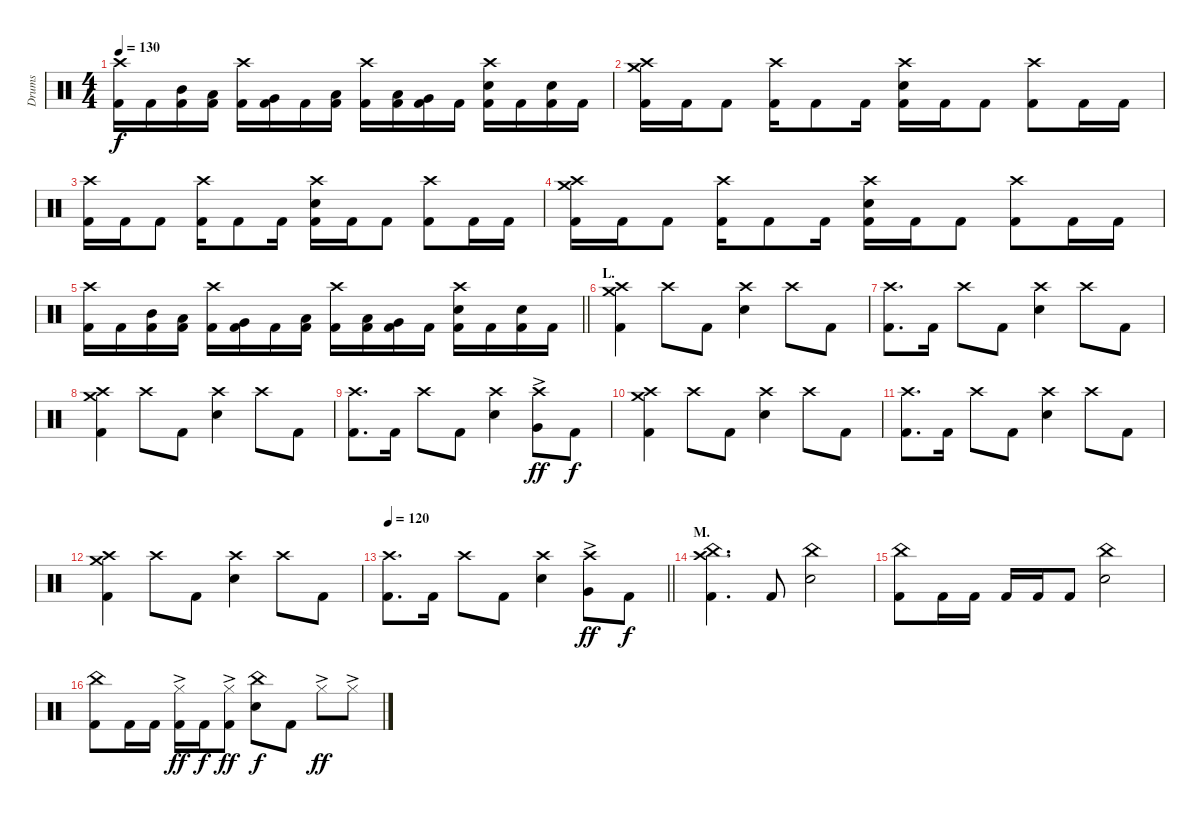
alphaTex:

\track ("Drums" "Drums") {instrument percussion}
\staff {score}
\articulation defaults
\ts (4 4)
\tempo 130
\clef neutral
\ks c
("Crash high (hit)" "Kick (hit) 2").16{dy f} "Kick (hit) 2".16 ("Mid Tom (hit)" "Kick (hit) 2").16 ("Low Tom (hit)" "Kick (hit) 2").16 ("Crash high (hit)" "Kick (hit) 2").16 ("Very Low Tom (hit)" "Kick (hit) 2").16 "Kick (hit) 2".16 ("Low Tom (hit)" "Kick (hit) 2").16 ("Crash high (hit)" "Kick (hit) 2").16 ("Low Tom (hit)" "Kick (hit) 2").16 ("Very Low Tom (hit)" "Kick (hit) 2").16 "Kick (hit) 2".16 ("Crash high (hit)" "Electric Snare (hit)" "Kick (hit) 2").16 "Kick (hit) 2".16 ("Electric Snare (hit)" "Kick (hit) 2").16 "Kick (hit) 2".16 |
("Crash medium (hit)" "Crash high (hit)" "Kick (hit) 2").16 "Kick (hit) 2".16 "Kick (hit) 2".8 ("Crash high (hit)" "Kick (hit) 2").16 "Kick (hit) 2".8 "Kick (hit) 2".16 ("Crash high (hit)" "Electric Snare (hit)" "Kick (hit) 2").16 "Kick (hit) 2".16 "Kick (hit) 2".8 ("Crash high (hit)" "Kick (hit) 2").8 "Kick (hit) 2".16 "Kick (hit) 2".16 |
("Crash high (hit)" "Kick (hit) 2").16 "Kick (hit) 2".16 "Kick (hit) 2".8 ("Crash high (hit)" "Kick (hit) 2").16 "Kick (hit) 2".8 "Kick (hit) 2".16 ("Crash high (hit)" "Electric Snare (hit)" "Kick (hit) 2").16 "Kick (hit) 2".16 "Kick (hit) 2".8 ("Crash high (hit)" "Kick (hit) 2").8 "Kick (hit) 2".16 "Kick (hit) 2".16 |
("Crash medium (hit)" "Crash high (hit)" "Kick (hit) 2").16 "Kick (hit) 2".16 "Kick (hit) 2".8 ("Crash high (hit)" "Kick (hit) 2").16 "Kick (hit) 2".8 "Kick (hit) 2".16 ("Crash high (hit)" "Electric Snare (hit)" "Kick (hit) 2").16 "Kick (hit) 2".16 "Kick (hit) 2".8 ("Crash high (hit)" "Kick (hit) 2").8 "Kick (hit) 2".16 "Kick (hit) 2".16 |
\barLineRight lightlight
("Crash high (hit)" "Kick (hit) 2").16 "Kick (hit) 2".16 ("Mid Tom (hit)" "Kick (hit) 2").16 ("Low Tom (hit)" "Kick (hit) 2").16 ("Crash high (hit)" "Kick (hit) 2").16 ("Very Low Tom (hit)" "Kick (hit) 2").16 "Kick (hit) 2".16 ("Low Tom (hit)" "Kick (hit) 2").16 ("Crash high (hit)" "Kick (hit) 2").16 ("Low Tom (hit)" "Kick (hit) 2").16 ("Very Low Tom (hit)" "Kick (hit) 2").16 "Kick (hit) 2".16 ("Crash high (hit)" "Electric Snare (hit)" "Kick (hit) 2").16 "Kick (hit) 2".16 ("Electric Snare (hit)" "Kick (hit) 2").16 "Kick (hit) 2".16 |
\section ("" "L.")
("Crash medium (hit)" "Crash high (hit)" "Kick (hit) 2").4 "Crash high (hit)".8 "Kick (hit) 2".8 ("Crash high (hit)" "Electric Snare (hit)").4 "Crash high (hit)".8 "Kick (hit) 2".8 |
("Crash high (hit)" "Kick (hit) 2").8{d} "Kick (hit) 2".16 "Crash high (hit)".8 "Kick (hit) 2".8 ("Crash high (hit)" "Electric Snare (hit)").4 "Crash high (hit)".8 "Kick (hit) 2".8 |
("Crash medium (hit)" "Crash high (hit)" "Kick (hit) 2").4 "Crash high (hit)".8 "Kick (hit) 2".8 ("Crash high (hit)" "Electric Snare (hit)").4 "Crash high (hit)".8 "Kick (hit) 2".8 |
("Crash high (hit)" "Kick (hit) 2").8{d} "Kick (hit) 2".16 "Crash high (hit)".8 "Kick (hit) 2".8 ("Crash high (hit)" "Electric Snare (hit)").4 ("Crash high (hit)" "Very Low Tom (hit)"{ac}).8{dy ff} "Kick (hit) 2".8{dy f} |
("Crash medium (hit)" "Crash high (hit)" "Kick (hit) 2").4 "Crash high (hit)".8 "Kick (hit) 2".8 ("Crash high (hit)" "Electric Snare (hit)").4 "Crash high (hit)".8 "Kick (hit) 2".8 |
("Crash high (hit)" "Kick (hit) 2").8{d} "Kick (hit) 2".16 "Crash high (hit)".8 "Kick (hit) 2".8 ("Crash high (hit)" "Electric Snare (hit)").4 "Crash high (hit)".8 "Kick (hit) 2".8 |
("Crash medium (hit)" "Crash high (hit)" "Kick (hit) 2").4 "Crash high (hit)".8 "Kick (hit) 2".8 ("Crash high (hit)" "Electric Snare (hit)").4 "Crash high (hit)".8 "Kick (hit) 2".8 |
\tempo 120
\barLineRight lightlight
("Crash high (hit)" "Kick (hit) 2").8{d} "Kick (hit) 2".16 "Crash high (hit)".8 "Kick (hit) 2".8 ("Crash high (hit)" "Electric Snare (hit)").4 ("Crash high (hit)" "Very Low Tom (hit)"{ac}).8{dy ff} "Kick (hit) 2".8{dy f} |
\section ("" "M.")
("China (hit)" "Crash high (hit)" "Kick (hit) 2").4{d} "Kick (hit) 2".8 ("China (hit)" "Electric Snare (hit)").2 |
("China (hit)" "Kick (hit) 2").8 "Kick (hit) 2".16 "Kick (hit) 2".16 "Kick (hit) 2".16 "Kick (hit) 2".16 "Kick (hit) 2".8 ("China (hit)" "Electric Snare (hit)").2 |
("China (hit)" "Kick (hit) 2").8 "Kick (hit) 2".16 "Kick (hit) 2".16 ("Hi-Hat (closed)"{ac} "Kick (hit) 2").16{dy ff} "Kick (hit) 2".16{dy f} ("Hi-Hat (closed)"{ac} "Kick (hit) 2").8{dy ff} ("China (hit)" "Electric Snare (hit)").8{dy f} "Kick (hit) 2".8 "Hi-Hat (closed)"{ac}.8{dy ff} "Hi-Hat (closed)"{ac}.8
